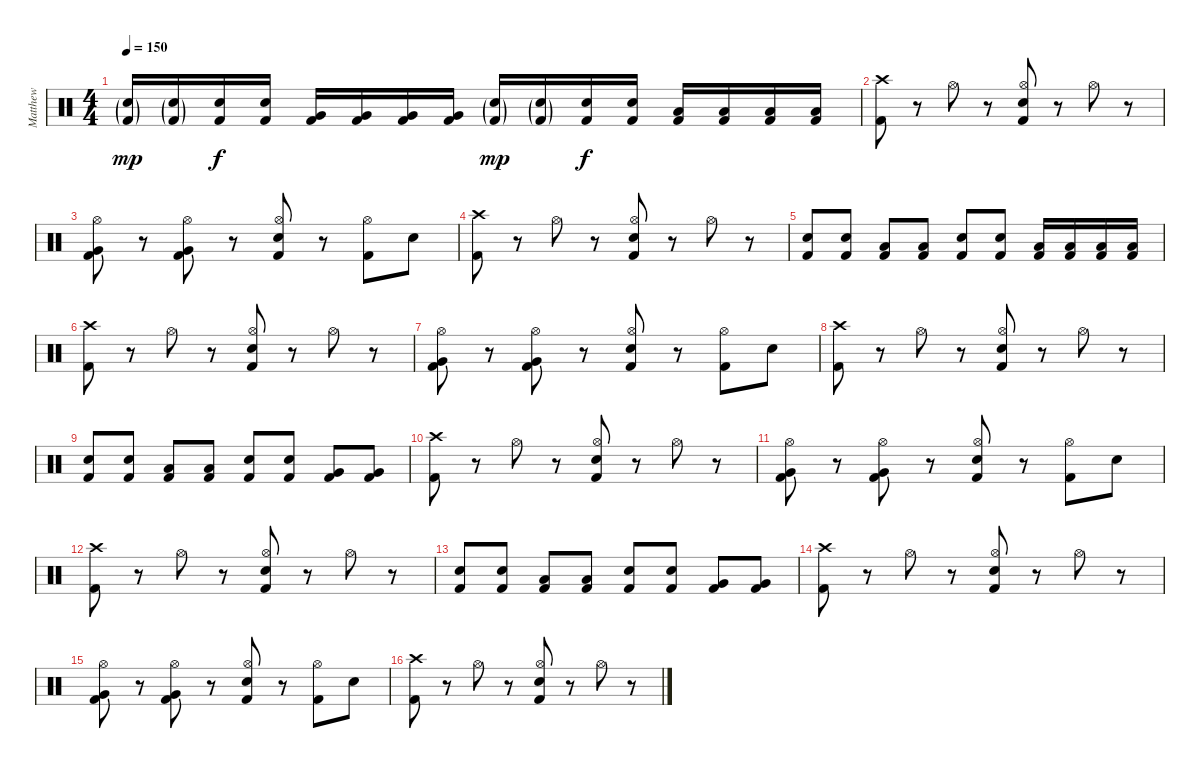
\track ("Matthew" "Matthew") {instrument percussion}
\staff {score}
\articulation defaults
\ts (4 4)
\tempo 150
\clef neutral
\ks c
("Electric Snare (hit)"{g} "Kick (hit) 2"{g}).16{dy mp} ("Electric Snare (hit)"{g} "Kick (hit) 2"{g}).16 ("Electric Snare (hit)" "Kick (hit) 2").16{dy f} ("Electric Snare (hit)" "Kick (hit) 2").16 ("Very Low Tom (hit)" "Kick (hit) 2").16 ("Very Low Tom (hit)" "Kick (hit) 2").16 ("Very Low Tom (hit)" "Kick (hit) 2").16 ("Very Low Tom (hit)" "Kick (hit) 2").16 ("Electric Snare (hit)"{g} "Kick (hit) 2"{g}).16{dy mp} ("Electric Snare (hit)"{g} "Kick (hit) 2"{g}).16 ("Electric Snare (hit)" "Kick (hit) 2").16{dy f} ("Electric Snare (hit)" "Kick (hit) 2").16 ("Low Floor Tom (hit)" "Kick (hit) 2").16 ("Low Floor Tom (hit)" "Kick (hit) 2").16 ("Low Floor Tom (hit)" "Kick (hit) 2").16 ("Low Floor Tom (hit)" "Kick (hit) 2").16 |
("Crash high (hit)" "Kick (hit) 2").8 r.8 "Hi-Hat (open)".8 r.8 ("Hi-Hat (open)" "Snare (hit) 2" "Kick (hit) 2").8 r.8 "Hi-Hat (open)".8 r.8 |
("Hi-Hat (open)" "Very Low Tom (hit)" "Kick (hit) 2").8 r.8 ("Hi-Hat (open)" "Very Low Tom (hit)" "Kick (hit) 2").8 r.8 ("Hi-Hat (open)" "Snare (hit) 2" "Kick (hit) 2").8 r.8 ("Hi-Hat (open)" "Kick (hit) 2").8 "Snare (hit) 2".8 |
("Crash high (hit)" "Kick (hit) 2").8 r.8 "Hi-Hat (open)".8 r.8 ("Hi-Hat (open)" "Snare (hit) 2" "Kick (hit) 2").8 r.8 "Hi-Hat (open)".8 r.8 |
("Electric Snare (hit)" "Kick (hit) 2").8 ("Electric Snare (hit)" "Kick (hit) 2").8 ("Low Tom (hit)" "Kick (hit) 2").8 ("Low Tom (hit)" "Kick (hit) 2").8 ("Electric Snare (hit)" "Kick (hit) 2").8 ("Electric Snare (hit)" "Kick (hit) 2").8 ("Low Tom (hit)" "Kick (hit) 2").16 ("Low Tom (hit)" "Kick (hit) 2").16 ("Low Tom (hit)" "Kick (hit) 2").16 ("Low Tom (hit)" "Kick (hit) 2").16 |
("Crash high (hit)" "Kick (hit) 2").8 r.8 "Hi-Hat (open)".8 r.8 ("Hi-Hat (open)" "Snare (hit) 2" "Kick (hit) 2").8 r.8 "Hi-Hat (open)".8 r.8 |
("Hi-Hat (open)" "Very Low Tom (hit)" "Kick (hit) 2").8 r.8 ("Hi-Hat (open)" "Very Low Tom (hit)" "Kick (hit) 2").8 r.8 ("Hi-Hat (open)" "Snare (hit) 2" "Kick (hit) 2").8 r.8 ("Hi-Hat (open)" "Kick (hit) 2").8 "Snare (hit) 2".8 |
("Crash high (hit)" "Kick (hit) 2").8 r.8 "Hi-Hat (open)".8 r.8 ("Hi-Hat (open)" "Snare (hit) 2" "Kick (hit) 2").8 r.8 "Hi-Hat (open)".8 r.8 |
("Electric Snare (hit)" "Kick (hit) 2").8 ("Electric Snare (hit)" "Kick (hit) 2").8 ("Low Tom (hit)" "Kick (hit) 2").8 ("Low Tom (hit)" "Kick (hit) 2").8 ("Electric Snare (hit)" "Kick (hit) 2").8 ("Electric Snare (hit)" "Kick (hit) 2").8 ("Very Low Tom (hit)" "Kick (hit) 2").8 ("Very Low Tom (hit)" "Kick (hit) 2").8 |
("Crash high (hit)" "Kick (hit) 2").8 r.8 "Hi-Hat (open)".8 r.8 ("Hi-Hat (open)" "Snare (hit) 2" "Kick (hit) 2").8 r.8 "Hi-Hat (open)".8 r.8 |
("Hi-Hat (open)" "Very Low Tom (hit)" "Kick (hit) 2").8 r.8 ("Hi-Hat (open)" "Very Low Tom (hit)" "Kick (hit) 2").8 r.8 ("Hi-Hat (open)" "Snare (hit) 2" "Kick (hit) 2").8 r.8 ("Hi-Hat (open)" "Kick (hit) 2").8 "Snare (hit) 2".8 |
("Crash high (hit)" "Kick (hit) 2").8 r.8 "Hi-Hat (open)".8 r.8 ("Hi-Hat (open)" "Snare (hit) 2" "Kick (hit) 2").8 r.8 "Hi-Hat (open)".8 r.8 |
("Electric Snare (hit)" "Kick (hit) 2").8 ("Electric Snare (hit)" "Kick (hit) 2").8 ("Low Tom (hit)" "Kick (hit) 2").8 ("Low Tom (hit)" "Kick (hit) 2").8 ("Electric Snare (hit)" "Kick (hit) 2").8 ("Electric Snare (hit)" "Kick (hit) 2").8 ("Very Low Tom (hit)" "Kick (hit) 2").8 ("Very Low Tom (hit)" "Kick (hit) 2").8 |
("Crash high (hit)" "Kick (hit) 2").8 r.8 "Hi-Hat (open)".8 r.8 ("Hi-Hat (open)" "Snare (hit) 2" "Kick (hit) 2").8 r.8 "Hi-Hat (open)".8 r.8 |
("Hi-Hat (open)" "Very Low Tom (hit)" "Kick (hit) 2").8 r.8 ("Hi-Hat (open)" "Very Low Tom (hit)" "Kick (hit) 2").8 r.8 ("Hi-Hat (open)" "Snare (hit) 2" "Kick (hit) 2").8 r.8 ("Hi-Hat (open)" "Kick (hit) 2").8 "Snare (hit) 2".8 |
("Crash high (hit)" "Kick (hit) 2").8 r.8 "Hi-Hat (open)".8 r.8 ("Hi-Hat (open)" "Snare (hit) 2" "Kick (hit) 2").8 r.8 "Hi-Hat (open)".8 r.8
